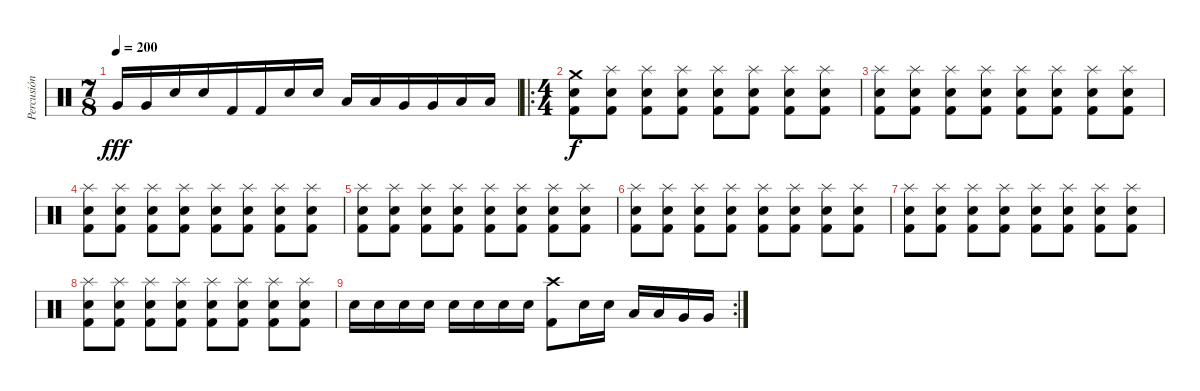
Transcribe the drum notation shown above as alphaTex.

\track ("Percusión" "Percusión") {instrument percussion}
\staff {score}
\articulation defaults
\ts (7 8)
\tempo 200
\clef neutral
\ks c "Very Low Tom (hit)".16{dy fff} "Very Low Tom (hit)".16 "Electric Snare (hit)".16 "Electric Snare (hit)".16 "Kick (hit) 2".16 "Kick (hit) 2".16 "Electric Snare (hit)".16 "Electric Snare (hit)".16 "Low Tom (hit)".16 "Low Tom (hit)".16 "Very Low Tom (hit)".16 "Very Low Tom (hit)".16 "Low Floor Tom (hit)".16 "Low Floor Tom (hit)".16
|
\ro
\ts (4 4)
("Crash medium (hit)" "Electric Snare (hit)" "Kick (hit) 2").8{dy f} ("Splash (hit)" "Electric Snare (hit)" "Kick (hit) 2").8 ("Splash (hit)" "Electric Snare (hit)" "Kick (hit) 2").8 ("Splash (hit)" "Electric Snare (hit)" "Kick (hit) 2").8 ("Splash (hit)" "Electric Snare (hit)" "Kick (hit) 2").8 ("Splash (hit)" "Electric Snare (hit)" "Kick (hit) 2").8 ("Splash (hit)" "Electric Snare (hit)" "Kick (hit) 2").8 ("Splash (hit)" "Electric Snare (hit)" "Kick (hit) 2").8 |
("Splash (hit)" "Electric Snare (hit)" "Kick (hit) 2").8 ("Splash (hit)" "Electric Snare (hit)" "Kick (hit) 2").8 ("Splash (hit)" "Electric Snare (hit)" "Kick (hit) 2").8 ("Splash (hit)" "Electric Snare (hit)" "Kick (hit) 2").8 ("Splash (hit)" "Electric Snare (hit)" "Kick (hit) 2").8 ("Splash (hit)" "Electric Snare (hit)" "Kick (hit) 2").8 ("Splash (hit)" "Electric Snare (hit)" "Kick (hit) 2").8 ("Splash (hit)" "Electric Snare (hit)" "Kick (hit) 2").8 |
("Splash (hit)" "Electric Snare (hit)" "Kick (hit) 2").8 ("Splash (hit)" "Electric Snare (hit)" "Kick (hit) 2").8 ("Splash (hit)" "Electric Snare (hit)" "Kick (hit) 2").8 ("Splash (hit)" "Electric Snare (hit)" "Kick (hit) 2").8 ("Splash (hit)" "Electric Snare (hit)" "Kick (hit) 2").8 ("Splash (hit)" "Electric Snare (hit)" "Kick (hit) 2").8 ("Splash (hit)" "Electric Snare (hit)" "Kick (hit) 2").8 ("Splash (hit)" "Electric Snare (hit)" "Kick (hit) 2").8 |
("Splash (hit)" "Electric Snare (hit)" "Kick (hit) 2").8 ("Splash (hit)" "Electric Snare (hit)" "Kick (hit) 2").8 ("Splash (hit)" "Electric Snare (hit)" "Kick (hit) 2").8 ("Splash (hit)" "Electric Snare (hit)" "Kick (hit) 2").8 ("Splash (hit)" "Electric Snare (hit)" "Kick (hit) 2").8 ("Splash (hit)" "Electric Snare (hit)" "Kick (hit) 2").8 ("Splash (hit)" "Electric Snare (hit)" "Kick (hit) 2").8 ("Splash (hit)" "Electric Snare (hit)" "Kick (hit) 2").8 |
("Splash (hit)" "Electric Snare (hit)" "Kick (hit) 2").8 ("Splash (hit)" "Electric Snare (hit)" "Kick (hit) 2").8 ("Splash (hit)" "Electric Snare (hit)" "Kick (hit) 2").8 ("Splash (hit)" "Electric Snare (hit)" "Kick (hit) 2").8 ("Splash (hit)" "Electric Snare (hit)" "Kick (hit) 2").8 ("Splash (hit)" "Electric Snare (hit)" "Kick (hit) 2").8 ("Splash (hit)" "Electric Snare (hit)" "Kick (hit) 2").8 ("Splash (hit)" "Electric Snare (hit)" "Kick (hit) 2").8 |
("Splash (hit)" "Electric Snare (hit)" "Kick (hit) 2").8 ("Splash (hit)" "Electric Snare (hit)" "Kick (hit) 2").8 ("Splash (hit)" "Electric Snare (hit)" "Kick (hit) 2").8 ("Splash (hit)" "Electric Snare (hit)" "Kick (hit) 2").8 ("Splash (hit)" "Electric Snare (hit)" "Kick (hit) 2").8 ("Splash (hit)" "Electric Snare (hit)" "Kick (hit) 2").8 ("Splash (hit)" "Electric Snare (hit)" "Kick (hit) 2").8 ("Splash (hit)" "Electric Snare (hit)" "Kick (hit) 2").8 |
("Splash (hit)" "Electric Snare (hit)" "Kick (hit) 2").8 ("Splash (hit)" "Electric Snare (hit)" "Kick (hit) 2").8 ("Splash (hit)" "Electric Snare (hit)" "Kick (hit) 2").8 ("Splash (hit)" "Electric Snare (hit)" "Kick (hit) 2").8 ("Splash (hit)" "Electric Snare (hit)" "Kick (hit) 2").8 ("Splash (hit)" "Electric Snare (hit)" "Kick (hit) 2").8 ("Splash (hit)" "Electric Snare (hit)" "Kick (hit) 2").8 ("Splash (hit)" "Electric Snare (hit)" "Kick (hit) 2").8 |
\rc 2 "Electric Snare (hit)".16 "Electric Snare (hit)".16 "Electric Snare (hit)".16 "Electric Snare (hit)".16 "Electric Snare (hit)".16 "Electric Snare (hit)".16 "Electric Snare (hit)".16 "Electric Snare (hit)".16
("Crash high (hit)" "Kick (hit) 2").8 "Electric Snare (hit)".16 "Electric Snare (hit)".16 "Low Tom (hit)".16 "Low Tom (hit)".16 "Very Low Tom (hit)".16 "Very Low Tom (hit)".16
